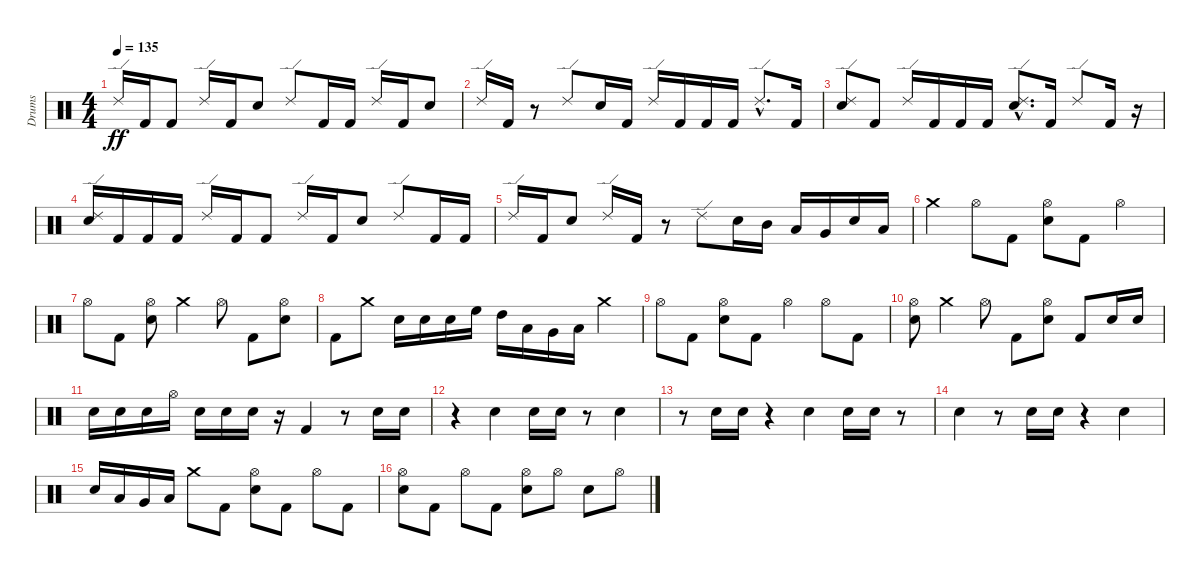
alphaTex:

\track ("Drums" "Drums") {instrument percussion}
\staff {score}
\articulation defaults
\ts (4 4)
\tempo 135
\clef neutral
\ks c "Ride (edge) 2".16{dy ff} "Kick (hit) 2".16 "Kick (hit) 2".8 "Ride (edge) 2".16 "Kick (hit) 2".16 "Electric Snare (hit)".8 "Ride (edge) 2".8 "Kick (hit) 2".16 "Kick (hit) 2".16 "Ride (edge) 2".16 "Kick (hit) 2".16 "Electric Snare (hit)".8
|
"Ride (edge) 2".16 "Kick (hit) 2".16 r.8 "Ride (edge) 2".8 "Electric Snare (hit)".16 "Kick (hit) 2".16 "Ride (edge) 2".16 "Kick (hit) 2".16 "Kick (hit) 2".16 "Kick (hit) 2".16 "Ride (edge) 2"{hac}.8{d} "Kick (hit) 2".16 |
("Electric Snare (hit)" "Ride (edge) 2").8 "Kick (hit) 2".8 "Ride (edge) 2".16 "Kick (hit) 2".16 "Kick (hit) 2".16 "Kick (hit) 2".16 ("Electric Snare (hit)"{hac} "Ride (edge) 2"{hac}).8{d} "Kick (hit) 2".16 "Ride (edge) 2".8 "Kick (hit) 2".16 r.16 |
("Electric Snare (hit)" "Ride (edge) 2").16 "Kick (hit) 2".16 "Kick (hit) 2".16 "Kick (hit) 2".16 "Ride (edge) 2".16 "Kick (hit) 2".16 "Kick (hit) 2".8 "Ride (edge) 2".16 "Kick (hit) 2".16 "Electric Snare (hit)".8 "Ride (edge) 2".8 "Kick (hit) 2".16 "Kick (hit) 2".16 |
"Ride (edge) 2".16 "Kick (hit) 2".16 "Electric Snare (hit)".8 "Ride (edge) 2".16 "Kick (hit) 2".16 r.8 "Ride (edge) 2".8 "Electric Snare (hit)".16 "Mid Tom (hit)".16 "Low Tom (hit)".16 "Very Low Tom (hit)".16 "Electric Snare (hit)".16 "Low Floor Tom (hit)".16 |
"Crash medium (hit)".4 "Hi-Hat (open)".8 "Kick (hit) 2".8 ("Electric Snare (hit)" "Hi-Hat (open)").8 "Kick (hit) 2".8 "Hi-Hat (open)".4 |
"Hi-Hat (open)".8 "Kick (hit) 2".8 ("Electric Snare (hit)" "Hi-Hat (open)").8 "Crash medium (hit)".4 "Hi-Hat (open)".8 "Kick (hit) 2".8 ("Electric Snare (hit)" "Hi-Hat (open)").8 |
"Kick (hit) 2".8 "Crash medium (hit)".8 "Electric Snare (hit)".16 "Electric Snare (hit)".16 "Electric Snare (hit)".16 "High Floor Tom (hit)".16 "High Tom (hit)".16 "Low Tom (hit)".16 "Very Low Tom (hit)".16 "Low Floor Tom (hit)".16 "Crash medium (hit)".4 |
"Hi-Hat (open)".8 "Kick (hit) 2".8 ("Electric Snare (hit)" "Hi-Hat (open)").8 "Kick (hit) 2".8 "Hi-Hat (open)".4 "Hi-Hat (open)".8 "Kick (hit) 2".8 |
("Electric Snare (hit)" "Hi-Hat (open)").8 "Crash medium (hit)".4 "Hi-Hat (open)".8 "Kick (hit) 2".8 ("Electric Snare (hit)" "Hi-Hat (open)").8 "Kick (hit) 2".8 "Electric Snare (hit)".16 "Electric Snare (hit)".16 |
"Electric Snare (hit)".16 "Electric Snare (hit)".16 "Electric Snare (hit)".16 "Hi-Hat (open)".16 "Electric Snare (hit)".16 "Electric Snare (hit)".16 "Electric Snare (hit)".16 r.16 "Kick (hit) 2".4 r.8 "Electric Snare (hit)".16 "Electric Snare (hit)".16 |
r.4 "Electric Snare (hit)".4 "Electric Snare (hit)".16 "Electric Snare (hit)".16 r.8 "Electric Snare (hit)".4 |
r.8 "Electric Snare (hit)".16 "Electric Snare (hit)".16 r.4 "Electric Snare (hit)".4 "Electric Snare (hit)".16 "Electric Snare (hit)".16 r.8 |
"Electric Snare (hit)".4 r.8 "Electric Snare (hit)".16 "Electric Snare (hit)".16 r.4 "Electric Snare (hit)".4 |
"Electric Snare (hit)".16 "Low Tom (hit)".16 "Very Low Tom (hit)".16 "Low Floor Tom (hit)".16 "Crash medium (hit)".8 "Kick (hit) 2".8 ("Electric Snare (hit)" "Hi-Hat (open)").8 "Kick (hit) 2".8 "Hi-Hat (open)".8 "Kick (hit) 2".8 |
("Electric Snare (hit)" "Hi-Hat (open)").8 "Kick (hit) 2".8 "Hi-Hat (open)".8 "Kick (hit) 2".8 ("Electric Snare (hit)" "Hi-Hat (open)").8 "Hi-Hat (open)".8 "Electric Snare (hit)".8 "Hi-Hat (open)".8
